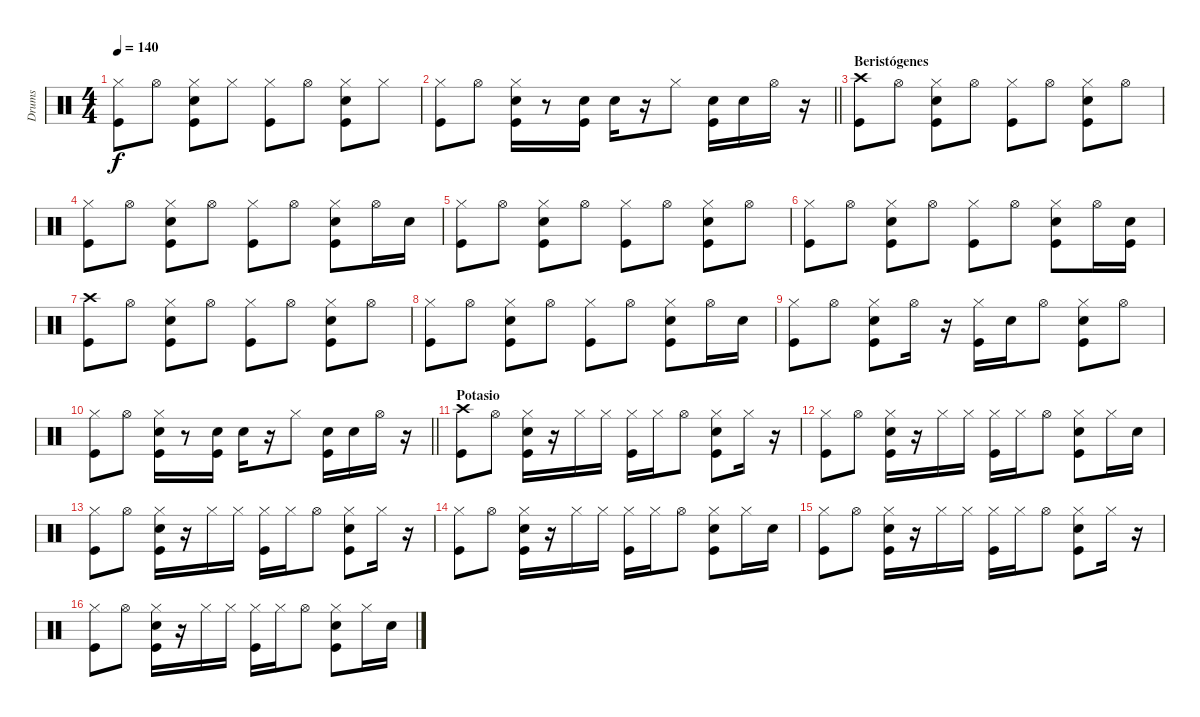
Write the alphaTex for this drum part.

\track ("Drums" "Drums") {instrument percussion}
\staff {score}
\articulation defaults
\ts (4 4)
\tempo 140
\clef neutral
\ks c
("Hi-Hat (closed)" "Kick (hit)").8{dy f} "Hi-Hat (open)".8 ("Hi-Hat (closed)" "Snare (hit) 2" "Kick (hit)").8 "Hi-Hat (closed)".8 ("Hi-Hat (closed)" "Kick (hit)").8 "Hi-Hat (open)".8 ("Hi-Hat (closed)" "Snare (hit) 2" "Kick (hit)").8 "Hi-Hat (closed)".8 |
\barLineRight lightlight
("Hi-Hat (closed)" "Kick (hit)").8 "Hi-Hat (open)".8 ("Hi-Hat (closed)" "Snare (hit) 2" "Kick (hit)").16 r.8 ("Snare (hit) 2" "Kick (hit)").16 "Snare (hit) 2".16 r.16 "Hi-Hat (closed)".8 ("Snare (hit) 2" "Kick (hit)").16 "Snare (hit) 2".16 "Hi-Hat (open)".16 r.16 |
\section ("" "Beristógenes")
("Crash high (hit)" "Kick (hit)").8 "Hi-Hat (open)".8 ("Hi-Hat (closed)" "Snare (hit) 2" "Kick (hit)").8 "Hi-Hat (open)".8 ("Hi-Hat (closed)" "Kick (hit)").8 "Hi-Hat (open)".8 ("Hi-Hat (closed)" "Snare (hit) 2" "Kick (hit)").8 "Hi-Hat (open)".8 |
("Hi-Hat (closed)" "Kick (hit)").8 "Hi-Hat (open)".8 ("Hi-Hat (closed)" "Snare (hit) 2" "Kick (hit)").8 "Hi-Hat (open)".8 ("Hi-Hat (closed)" "Kick (hit)").8 "Hi-Hat (open)".8 ("Hi-Hat (closed)" "Snare (hit) 2" "Kick (hit)").8 "Hi-Hat (open)".16 "Snare (hit) 2".16 |
("Hi-Hat (closed)" "Kick (hit)").8 "Hi-Hat (open)".8 ("Hi-Hat (closed)" "Snare (hit) 2" "Kick (hit)").8 "Hi-Hat (open)".8 ("Hi-Hat (closed)" "Kick (hit)").8 "Hi-Hat (open)".8 ("Hi-Hat (closed)" "Snare (hit) 2" "Kick (hit)").8 "Hi-Hat (open)".8 |
("Hi-Hat (closed)" "Kick (hit)").8 "Hi-Hat (open)".8 ("Hi-Hat (closed)" "Snare (hit) 2" "Kick (hit)").8 "Hi-Hat (open)".8 ("Hi-Hat (closed)" "Kick (hit)").8 "Hi-Hat (open)".8 ("Hi-Hat (closed)" "Snare (hit) 2" "Kick (hit)").8 "Hi-Hat (open)".16 ("Snare (hit) 2" "Kick (hit)").16 |
("Crash high (hit)" "Kick (hit)").8 "Hi-Hat (open)".8 ("Hi-Hat (closed)" "Snare (hit) 2" "Kick (hit)").8 "Hi-Hat (open)".8 ("Hi-Hat (closed)" "Kick (hit)").8 "Hi-Hat (open)".8 ("Hi-Hat (closed)" "Snare (hit) 2" "Kick (hit)").8 "Hi-Hat (open)".8 |
("Hi-Hat (closed)" "Kick (hit)").8 "Hi-Hat (open)".8 ("Hi-Hat (closed)" "Snare (hit) 2" "Kick (hit)").8 "Hi-Hat (open)".8 ("Hi-Hat (closed)" "Kick (hit)").8 "Hi-Hat (open)".8 ("Hi-Hat (closed)" "Snare (hit) 2" "Kick (hit)").8 "Hi-Hat (open)".16 "Snare (hit) 2".16 |
("Hi-Hat (closed)" "Kick (hit)").8 "Hi-Hat (open)".8 ("Hi-Hat (closed)" "Snare (hit) 2" "Kick (hit)").8 "Hi-Hat (open)".16 r.16 ("Hi-Hat (closed)" "Kick (hit)").16 "Snare (hit) 2".16 "Hi-Hat (open)".8 ("Hi-Hat (closed)" "Snare (hit) 2" "Kick (hit)").8 "Hi-Hat (open)".8 |
\barLineRight lightlight
("Hi-Hat (closed)" "Kick (hit)").8 "Hi-Hat (open)".8 ("Hi-Hat (closed)" "Snare (hit) 2" "Kick (hit)").16 r.8 ("Snare (hit) 2" "Kick (hit)").16 "Snare (hit) 2".16 r.16 "Hi-Hat (closed)".8 ("Snare (hit) 2" "Kick (hit)").16 "Snare (hit) 2".16 "Hi-Hat (open)".16 r.16 |
\section ("" "Potasio")
("Crash high (hit)" "Kick (hit)").8 "Hi-Hat (open)".8 ("Hi-Hat (closed)" "Snare (hit) 2" "Kick (hit)").16 r.16 "Hi-Hat (closed)".16 "Hi-Hat (closed)".16 ("Hi-Hat (closed)" "Kick (hit)").16 "Hi-Hat (closed)".16 "Hi-Hat (open)".8 ("Hi-Hat (closed)" "Snare (hit) 2" "Kick (hit)").8 "Hi-Hat (closed)".16 r.16 |
("Hi-Hat (closed)" "Kick (hit)").8 "Hi-Hat (open)".8 ("Hi-Hat (closed)" "Snare (hit) 2" "Kick (hit)").16 r.16 "Hi-Hat (closed)".16 "Hi-Hat (closed)".16 ("Hi-Hat (closed)" "Kick (hit)").16 "Hi-Hat (closed)".16 "Hi-Hat (open)".8 ("Hi-Hat (closed)" "Snare (hit) 2" "Kick (hit)").8 "Hi-Hat (closed)".16 "Snare (hit) 2".16 |
("Hi-Hat (closed)" "Kick (hit)").8 "Hi-Hat (open)".8 ("Hi-Hat (closed)" "Snare (hit) 2" "Kick (hit)").16 r.16 "Hi-Hat (closed)".16 "Hi-Hat (closed)".16 ("Hi-Hat (closed)" "Kick (hit)").16 "Hi-Hat (closed)".16 "Hi-Hat (open)".8 ("Hi-Hat (closed)" "Snare (hit) 2" "Kick (hit)").8 "Hi-Hat (closed)".16 r.16 |
("Hi-Hat (closed)" "Kick (hit)").8 "Hi-Hat (open)".8 ("Hi-Hat (closed)" "Snare (hit) 2" "Kick (hit)").16 r.16 "Hi-Hat (closed)".16 "Hi-Hat (closed)".16 ("Hi-Hat (closed)" "Kick (hit)").16 "Hi-Hat (closed)".16 "Hi-Hat (open)".8 ("Hi-Hat (closed)" "Snare (hit) 2" "Kick (hit)").8 "Hi-Hat (closed)".16 "Snare (hit) 2".16 |
("Hi-Hat (closed)" "Kick (hit)").8 "Hi-Hat (open)".8 ("Hi-Hat (closed)" "Snare (hit) 2" "Kick (hit)").16 r.16 "Hi-Hat (closed)".16 "Hi-Hat (closed)".16 ("Hi-Hat (closed)" "Kick (hit)").16 "Hi-Hat (closed)".16 "Hi-Hat (open)".8 ("Hi-Hat (closed)" "Snare (hit) 2" "Kick (hit)").8 "Hi-Hat (closed)".16 r.16 |
("Hi-Hat (closed)" "Kick (hit)").8 "Hi-Hat (open)".8 ("Hi-Hat (closed)" "Snare (hit) 2" "Kick (hit)").16 r.16 "Hi-Hat (closed)".16 "Hi-Hat (closed)".16 ("Hi-Hat (closed)" "Kick (hit)").16 "Hi-Hat (closed)".16 "Hi-Hat (open)".8 ("Hi-Hat (closed)" "Snare (hit) 2" "Kick (hit)").8 "Hi-Hat (closed)".16 "Snare (hit) 2".16
